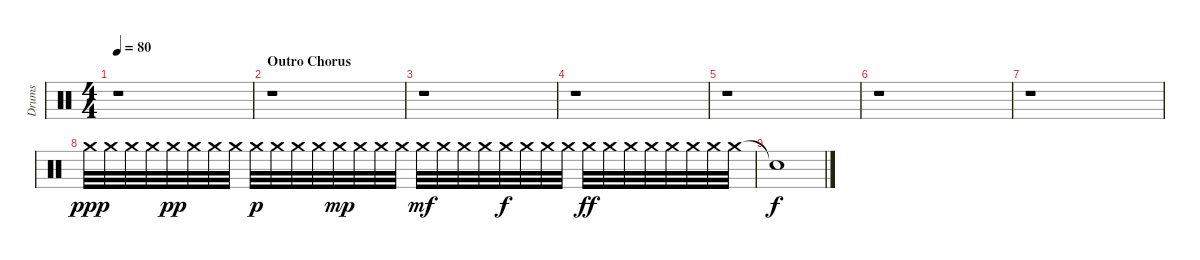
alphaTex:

\track ("Drums" "Drums") {instrument percussion}
\staff {score}
\articulation defaults
\ts (4 4)
\tempo 80
\clef neutral
\ks c
r.1{dy fff} |
\section ("" "Outro Chorus")
r.1 |
r.1 |
r.1 |
r.1 |
r.1 |
r.1 |
"Crash medium (hit)".32{dy ppp} "Crash medium (hit)".32 "Crash medium (hit)".32 "Crash medium (hit)".32 "Crash medium (hit)".32{dy pp} "Crash medium (hit)".32 "Crash medium (hit)".32 "Crash medium (hit)".32 "Crash medium (hit)".32{dy p} "Crash medium (hit)".32 "Crash medium (hit)".32 "Crash medium (hit)".32 "Crash medium (hit)".32{dy mp} "Crash medium (hit)".32 "Crash medium (hit)".32 "Crash medium (hit)".32 "Crash medium (hit)".32{dy mf} "Crash medium (hit)".32 "Crash medium (hit)".32 "Crash medium (hit)".32 "Crash medium (hit)".32{dy f} "Crash medium (hit)".32 "Crash medium (hit)".32 "Crash medium (hit)".32 "Crash medium (hit)".32{dy ff} "Crash medium (hit)".32 "Crash medium (hit)".32 "Crash medium (hit)".32 "Crash medium (hit)".32 "Crash medium (hit)".32 "Crash medium (hit)".32 "Crash medium (hit)".32 |
"Snare (hit)"{t}.1{dy f}
